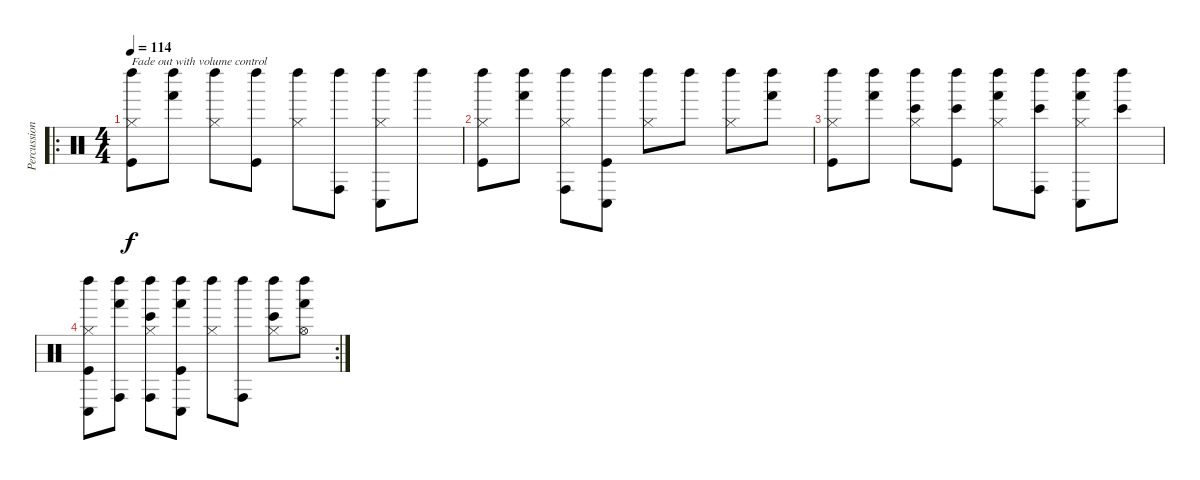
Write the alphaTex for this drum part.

\track ("Percussion" "Percussion") {instrument percussion}
\staff {score}
\articulation defaults
\ro
\ts (4 4)
\tempo 114
\clef neutral
\ks c
("Left Maraca (hit)" "Hi-Hat (closed)" "Kick (hit)").8{txt "Fade out with volume control" dy f} ("Left Maraca (hit)" "Hand (hit)").8 ("Left Maraca (hit)" "Hi-Hat (closed)").8 ("Left Maraca (hit)" "Kick (hit)").8 ("Left Maraca (hit)" "Hi-Hat (closed)").8 ("Left Maraca (hit)" "Conga high (hit)").8 ("Left Maraca (hit)" "Conga low (hit)" "Hi-Hat (closed)").8 "Left Maraca (hit)".8 |
("Left Maraca (hit)" "Hi-Hat (closed)" "Kick (hit)").8 ("Left Maraca (hit)" "Hand (hit)").8 ("Left Maraca (hit)" "Conga high (hit)" "Hi-Hat (closed)").8 ("Left Maraca (hit)" "Conga low (hit)" "Kick (hit)").8 ("Left Maraca (hit)" "Hi-Hat (closed)").8 "Left Maraca (hit)".8 ("Left Maraca (hit)" "Hi-Hat (closed)").8 ("Left Maraca (hit)" "Hand (hit)").8 |
("Left Maraca (hit)" "Hi-Hat (closed)" "Kick (hit)").8 ("Left Maraca (hit)" "Hand (hit)").8 ("Left Maraca (hit)" "Bongo High (hit)" "Hi-Hat (closed)").8 ("Left Maraca (hit)" "Bongo High (hit)" "Kick (hit)").8 ("Left Maraca (hit)" "Hand (hit)" "Hi-Hat (closed)").8 ("Left Maraca (hit)" "Conga high (hit)" "Bongo High (hit)").8 ("Left Maraca (hit)" "Conga low (hit)" "Hand (hit)" "Hi-Hat (closed)").8 ("Left Maraca (hit)" "Bongo High (hit)").8 |
\rc 2
("Left Maraca (hit)" "Conga low (hit)" "Hi-Hat (closed)" "Kick (hit)").8 ("Left Maraca (hit)" "Conga high (hit)" "Hand (hit)").8 ("Left Maraca (hit)" "Conga high (hit)" "Bongo High (hit)" "Hi-Hat (closed)").8 ("Left Maraca (hit)" "Conga low (hit)" "Hand (hit)" "Kick (hit)").8 ("Left Maraca (hit)" "Hi-Hat (closed)").8 ("Left Maraca (hit)" "Conga high (hit)").8 ("Left Maraca (hit)" "Bongo High (hit)" "Hi-Hat (closed)").8 ("Left Maraca (hit)" "Hand (hit)" "Hi-Hat (open)").8
